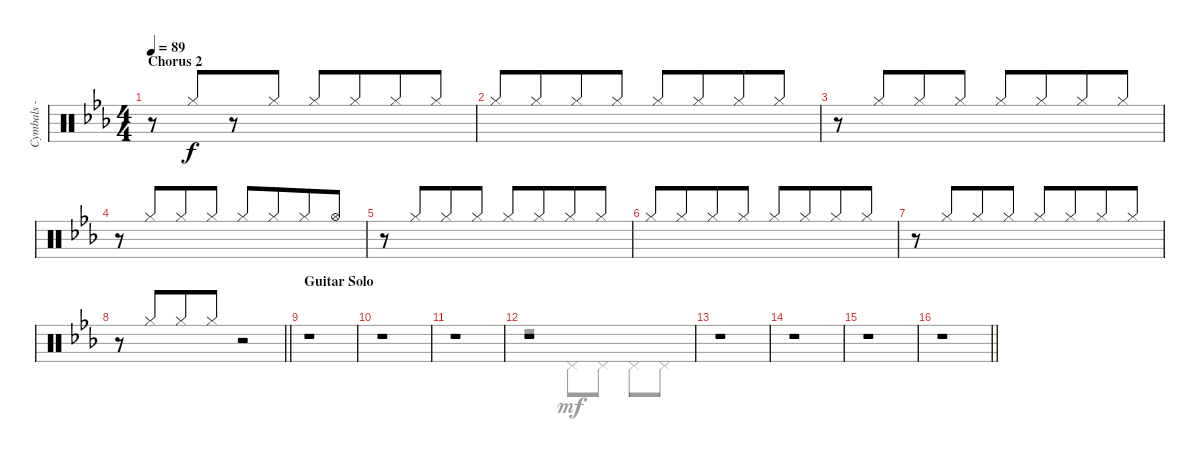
\track ("Cymbals - hi-hat" "Cymbals - ") {instrument percussion}
\staff {score}
\articulation defaults
\voice
\ts (4 4)
\section ("" "Chorus 2")
\tempo 89
\clef neutral
\ks eb
r.8{dy f} "Hi-Hat (closed)".8{beam Up beam merge} r.8 "Hi-Hat (closed)".8{beam Up} "Hi-Hat (closed)".8{beam Up} "Hi-Hat (closed)".8{beam Up beam merge} "Hi-Hat (closed)".8{beam Up} "Hi-Hat (closed)".8{beam Up} |
"Hi-Hat (closed)".8{beam Up} "Hi-Hat (closed)".8{beam Up beam merge} "Hi-Hat (closed)".8{beam Up} "Hi-Hat (closed)".8{beam Up} "Hi-Hat (closed)".8{beam Up} "Hi-Hat (closed)".8{beam Up beam merge} "Hi-Hat (closed)".8{beam Up} "Hi-Hat (closed)".8{beam Up} |
r.8 "Hi-Hat (closed)".8{beam Up beam merge} "Hi-Hat (closed)".8{beam Up} "Hi-Hat (closed)".8{beam Up} "Hi-Hat (closed)".8{beam Up} "Hi-Hat (closed)".8{beam Up beam merge} "Hi-Hat (closed)".8{beam Up} "Hi-Hat (closed)".8{beam Up} |
r.8 "Hi-Hat (closed)".8{beam Up beam merge} "Hi-Hat (closed)".8{beam Up} "Hi-Hat (closed)".8{beam Up} "Hi-Hat (closed)".8{beam Up} "Hi-Hat (closed)".8{beam Up beam merge} "Hi-Hat (closed)".8{beam Up} "Hi-Hat (open)".8{beam Up} |
r.8 "Hi-Hat (closed)".8{beam Up beam merge} "Hi-Hat (closed)".8{beam Up} "Hi-Hat (closed)".8{beam Up} "Hi-Hat (closed)".8{beam Up} "Hi-Hat (closed)".8{beam Up beam merge} "Hi-Hat (closed)".8{beam Up} "Hi-Hat (closed)".8{beam Up} |
"Hi-Hat (closed)".8{beam Up} "Hi-Hat (closed)".8{beam Up beam merge} "Hi-Hat (closed)".8{beam Up} "Hi-Hat (closed)".8{beam Up} "Hi-Hat (closed)".8{beam Up} "Hi-Hat (closed)".8{beam Up beam merge} "Hi-Hat (closed)".8{beam Up} "Hi-Hat (closed)".8{beam Up} |
r.8 "Hi-Hat (closed)".8{beam Up beam merge} "Hi-Hat (closed)".8{beam Up} "Hi-Hat (closed)".8{beam Up} "Hi-Hat (closed)".8{beam Up} "Hi-Hat (closed)".8{beam Up beam merge} "Hi-Hat (closed)".8{beam Up} "Hi-Hat (closed)".8{beam Up} |
\barLineRight lightlight
r.8 "Hi-Hat (closed)".8{beam Up beam merge} "Hi-Hat (closed)".8{beam Up} "Hi-Hat (closed)".8{beam Up} r.2 |
\section ("" "Guitar Solo")
r.1 |
r.1 |
r.1 |
r.1 |
r.1 |
r.1 |
r.1 |
\barLineRight lightlight
r.1
\voice
\clef neutral
\ottava regular
\simile none
\ks eb
|
|
|
|
|
|
|
\barLineRight lightlight
|
|
|
|
r.2 "Pedal Hi-Hat (hit)".8{dy mf} "Pedal Hi-Hat (hit)".8 "Pedal Hi-Hat (hit)".8 "Pedal Hi-Hat (hit)".8 |
|
|
|
\barLineRight lightlight
